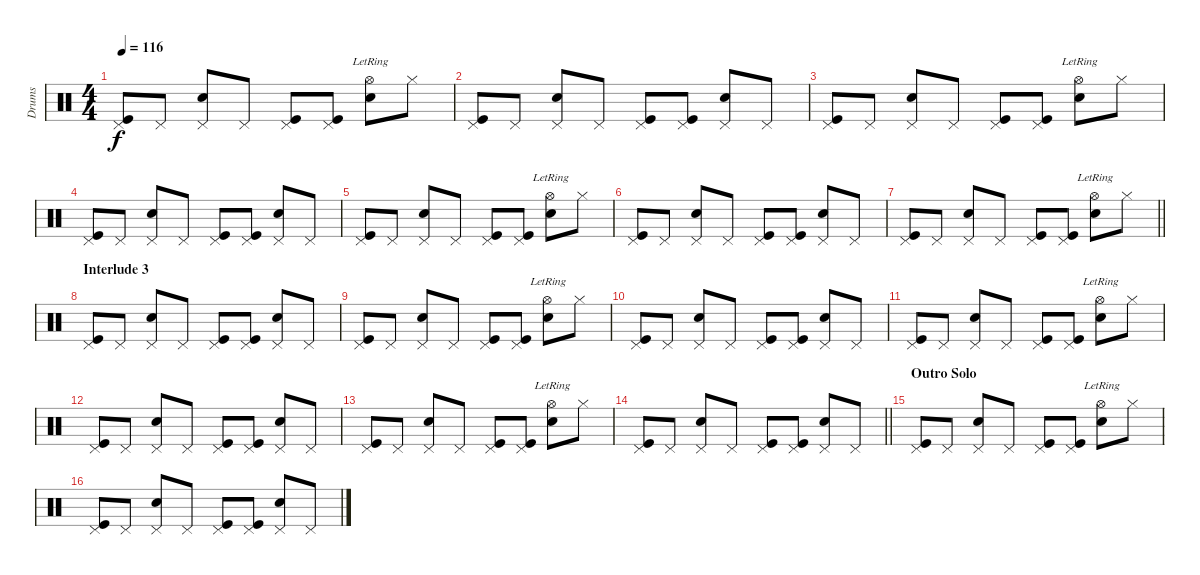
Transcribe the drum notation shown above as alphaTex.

\track ("Drums" "Drums") {instrument percussion}
\staff {score}
\articulation defaults
\ts (4 4)
\tempo 116
\clef neutral
\ks c
("Pedal Hi-Hat (hit)" "Kick (hit)").8{dy f} "Pedal Hi-Hat (hit)".8 ("Pedal Hi-Hat (hit)" "Snare (hit) 2").8 "Pedal Hi-Hat (hit)".8 ("Pedal Hi-Hat (hit)" "Kick (hit)").8 ("Pedal Hi-Hat (hit)" "Kick (hit)").8 ("Hi-Hat (open)"{lr} "Snare (hit) 2").8 "Hi-Hat (closed)".8 |
("Pedal Hi-Hat (hit)" "Kick (hit)").8 "Pedal Hi-Hat (hit)".8 ("Pedal Hi-Hat (hit)" "Snare (hit) 2").8 "Pedal Hi-Hat (hit)".8 ("Pedal Hi-Hat (hit)" "Kick (hit)").8 ("Pedal Hi-Hat (hit)" "Kick (hit)").8 ("Pedal Hi-Hat (hit)" "Snare (hit) 2").8 "Pedal Hi-Hat (hit)".8 |
("Pedal Hi-Hat (hit)" "Kick (hit)").8 "Pedal Hi-Hat (hit)".8 ("Pedal Hi-Hat (hit)" "Snare (hit) 2").8 "Pedal Hi-Hat (hit)".8 ("Pedal Hi-Hat (hit)" "Kick (hit)").8 ("Pedal Hi-Hat (hit)" "Kick (hit)").8 ("Hi-Hat (open)"{lr} "Snare (hit) 2").8 "Hi-Hat (closed)".8 |
("Pedal Hi-Hat (hit)" "Kick (hit)").8 "Pedal Hi-Hat (hit)".8 ("Pedal Hi-Hat (hit)" "Snare (hit) 2").8 "Pedal Hi-Hat (hit)".8 ("Pedal Hi-Hat (hit)" "Kick (hit)").8 ("Pedal Hi-Hat (hit)" "Kick (hit)").8 ("Pedal Hi-Hat (hit)" "Snare (hit) 2").8 "Pedal Hi-Hat (hit)".8 |
("Pedal Hi-Hat (hit)" "Kick (hit)").8 "Pedal Hi-Hat (hit)".8 ("Pedal Hi-Hat (hit)" "Snare (hit) 2").8 "Pedal Hi-Hat (hit)".8 ("Pedal Hi-Hat (hit)" "Kick (hit)").8 ("Pedal Hi-Hat (hit)" "Kick (hit)").8 ("Hi-Hat (open)"{lr} "Snare (hit) 2").8 "Hi-Hat (closed)".8 |
("Pedal Hi-Hat (hit)" "Kick (hit)").8 "Pedal Hi-Hat (hit)".8 ("Pedal Hi-Hat (hit)" "Snare (hit) 2").8 "Pedal Hi-Hat (hit)".8 ("Pedal Hi-Hat (hit)" "Kick (hit)").8 ("Pedal Hi-Hat (hit)" "Kick (hit)").8 ("Pedal Hi-Hat (hit)" "Snare (hit) 2").8 "Pedal Hi-Hat (hit)".8 |
\barLineRight lightlight
("Pedal Hi-Hat (hit)" "Kick (hit)").8 "Pedal Hi-Hat (hit)".8 ("Pedal Hi-Hat (hit)" "Snare (hit) 2").8 "Pedal Hi-Hat (hit)".8 ("Pedal Hi-Hat (hit)" "Kick (hit)").8 ("Pedal Hi-Hat (hit)" "Kick (hit)").8 ("Hi-Hat (open)"{lr} "Snare (hit) 2").8 "Hi-Hat (closed)".8 |
\section ("" "Interlude 3")
("Pedal Hi-Hat (hit)" "Kick (hit)").8 "Pedal Hi-Hat (hit)".8 ("Pedal Hi-Hat (hit)" "Snare (hit) 2").8 "Pedal Hi-Hat (hit)".8 ("Pedal Hi-Hat (hit)" "Kick (hit)").8 ("Pedal Hi-Hat (hit)" "Kick (hit)").8 ("Pedal Hi-Hat (hit)" "Snare (hit) 2").8 "Pedal Hi-Hat (hit)".8 |
("Pedal Hi-Hat (hit)" "Kick (hit)").8 "Pedal Hi-Hat (hit)".8 ("Pedal Hi-Hat (hit)" "Snare (hit) 2").8 "Pedal Hi-Hat (hit)".8 ("Pedal Hi-Hat (hit)" "Kick (hit)").8 ("Pedal Hi-Hat (hit)" "Kick (hit)").8 ("Hi-Hat (open)"{lr} "Snare (hit) 2").8 "Hi-Hat (closed)".8 |
("Pedal Hi-Hat (hit)" "Kick (hit)").8 "Pedal Hi-Hat (hit)".8 ("Pedal Hi-Hat (hit)" "Snare (hit) 2").8 "Pedal Hi-Hat (hit)".8 ("Pedal Hi-Hat (hit)" "Kick (hit)").8 ("Pedal Hi-Hat (hit)" "Kick (hit)").8 ("Pedal Hi-Hat (hit)" "Snare (hit) 2").8 "Pedal Hi-Hat (hit)".8 |
("Pedal Hi-Hat (hit)" "Kick (hit)").8 "Pedal Hi-Hat (hit)".8 ("Pedal Hi-Hat (hit)" "Snare (hit) 2").8 "Pedal Hi-Hat (hit)".8 ("Pedal Hi-Hat (hit)" "Kick (hit)").8 ("Pedal Hi-Hat (hit)" "Kick (hit)").8 ("Hi-Hat (open)"{lr} "Snare (hit) 2").8 "Hi-Hat (closed)".8 |
("Pedal Hi-Hat (hit)" "Kick (hit)").8 "Pedal Hi-Hat (hit)".8 ("Pedal Hi-Hat (hit)" "Snare (hit) 2").8 "Pedal Hi-Hat (hit)".8 ("Pedal Hi-Hat (hit)" "Kick (hit)").8 ("Pedal Hi-Hat (hit)" "Kick (hit)").8 ("Pedal Hi-Hat (hit)" "Snare (hit) 2").8 "Pedal Hi-Hat (hit)".8 |
("Pedal Hi-Hat (hit)" "Kick (hit)").8 "Pedal Hi-Hat (hit)".8 ("Pedal Hi-Hat (hit)" "Snare (hit) 2").8 "Pedal Hi-Hat (hit)".8 ("Pedal Hi-Hat (hit)" "Kick (hit)").8 ("Pedal Hi-Hat (hit)" "Kick (hit)").8 ("Hi-Hat (open)"{lr} "Snare (hit) 2").8 "Hi-Hat (closed)".8 |
\barLineRight lightlight
("Pedal Hi-Hat (hit)" "Kick (hit)").8 "Pedal Hi-Hat (hit)".8 ("Pedal Hi-Hat (hit)" "Snare (hit) 2").8 "Pedal Hi-Hat (hit)".8 ("Pedal Hi-Hat (hit)" "Kick (hit)").8 ("Pedal Hi-Hat (hit)" "Kick (hit)").8 ("Pedal Hi-Hat (hit)" "Snare (hit) 2").8 "Pedal Hi-Hat (hit)".8 |
\section ("" "Outro Solo")
("Pedal Hi-Hat (hit)" "Kick (hit)").8 "Pedal Hi-Hat (hit)".8 ("Pedal Hi-Hat (hit)" "Snare (hit) 2").8 "Pedal Hi-Hat (hit)".8 ("Pedal Hi-Hat (hit)" "Kick (hit)").8 ("Pedal Hi-Hat (hit)" "Kick (hit)").8 ("Hi-Hat (open)"{lr} "Snare (hit) 2").8 "Hi-Hat (closed)".8 |
("Pedal Hi-Hat (hit)" "Kick (hit)").8 "Pedal Hi-Hat (hit)".8 ("Pedal Hi-Hat (hit)" "Snare (hit) 2").8 "Pedal Hi-Hat (hit)".8 ("Pedal Hi-Hat (hit)" "Kick (hit)").8 ("Pedal Hi-Hat (hit)" "Kick (hit)").8 ("Pedal Hi-Hat (hit)" "Snare (hit) 2").8 "Pedal Hi-Hat (hit)".8
